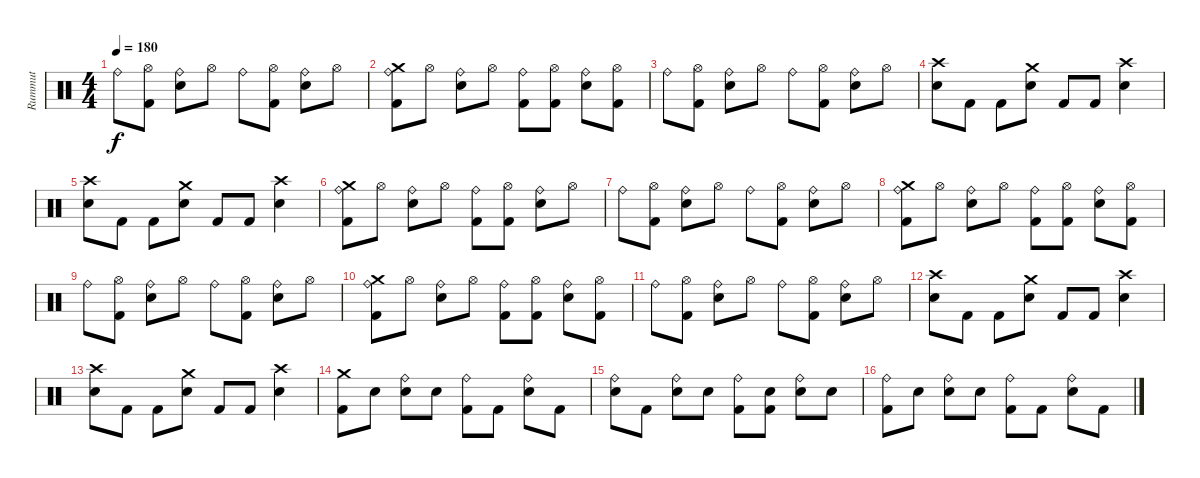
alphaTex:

\track ("Rummut" "Rummut") {instrument percussion}
\staff {score}
\articulation defaults
\ts (4 4)
\tempo 180
\clef neutral
\ks c "Ride (bell)".8{dy f}
("Hi-Hat (open)"{x} "Kick (hit) 2").8 ("Ride (bell)" "Snare (hit) 2").8 "Hi-Hat (open)"{x}.8 "Ride (bell)".8 ("Hi-Hat (open)"{x} "Kick (hit) 2").8 ("Ride (bell)" "Snare (hit) 2").8 "Hi-Hat (open)"{x}.8 |
("Ride (bell)" "Crash medium (hit)" "Kick (hit) 2").8 "Hi-Hat (open)"{x}.8 ("Ride (bell)" "Snare (hit) 2").8 "Hi-Hat (open)"{x}.8 ("Ride (bell)" "Kick (hit) 2").8 ("Hi-Hat (open)"{x} "Kick (hit) 2").8 ("Ride (bell)" "Snare (hit) 2").8 ("Hi-Hat (open)"{x} "Kick (hit) 2").8 |
"Ride (bell)".8 ("Hi-Hat (open)"{x} "Kick (hit) 2").8 ("Ride (bell)" "Snare (hit) 2").8 "Hi-Hat (open)"{x}.8 "Ride (bell)".8 ("Hi-Hat (open)"{x} "Kick (hit) 2").8 ("Ride (bell)" "Snare (hit) 2").8 "Hi-Hat (open)"{x}.8 |
("Crash high (hit)" "Snare (hit) 2").8 "Kick (hit) 2".8 "Kick (hit) 2".8 ("Crash medium (hit)" "Snare (hit) 2").8 "Kick (hit) 2".8 "Kick (hit) 2".8 ("Crash high (hit)" "Snare (hit) 2").4 |
("Crash high (hit)" "Snare (hit) 2").8 "Kick (hit) 2".8 "Kick (hit) 2".8 ("Crash medium (hit)" "Snare (hit) 2").8 "Kick (hit) 2".8 "Kick (hit) 2".8 ("Crash high (hit)" "Snare (hit) 2").4 |
("Ride (bell)" "Crash medium (hit)" "Kick (hit) 2").8 "Hi-Hat (open)"{x}.8 ("Ride (bell)" "Snare (hit) 2").8 "Hi-Hat (open)"{x}.8 ("Ride (bell)" "Kick (hit) 2").8 ("Hi-Hat (open)"{x} "Kick (hit) 2").8 ("Ride (bell)" "Snare (hit) 2").8 "Hi-Hat (open)"{x}.8 |
"Ride (bell)".8 ("Hi-Hat (open)"{x} "Kick (hit) 2").8 ("Ride (bell)" "Snare (hit) 2").8 "Hi-Hat (open)"{x}.8 "Ride (bell)".8 ("Hi-Hat (open)"{x} "Kick (hit) 2").8 ("Ride (bell)" "Snare (hit) 2").8 "Hi-Hat (open)"{x}.8 |
("Ride (bell)" "Crash medium (hit)" "Kick (hit) 2").8 "Hi-Hat (open)"{x}.8 ("Ride (bell)" "Snare (hit) 2").8 "Hi-Hat (open)"{x}.8 ("Ride (bell)" "Kick (hit) 2").8 ("Hi-Hat (open)"{x} "Kick (hit) 2").8 ("Ride (bell)" "Snare (hit) 2").8 ("Hi-Hat (open)"{x} "Kick (hit) 2").8 |
"Ride (bell)".8 ("Hi-Hat (open)"{x} "Kick (hit) 2").8 ("Ride (bell)" "Snare (hit) 2").8 "Hi-Hat (open)"{x}.8 "Ride (bell)".8 ("Hi-Hat (open)"{x} "Kick (hit) 2").8 ("Ride (bell)" "Snare (hit) 2").8 "Hi-Hat (open)"{x}.8 |
("Ride (bell)" "Crash medium (hit)" "Kick (hit) 2").8 "Hi-Hat (open)"{x}.8 ("Ride (bell)" "Snare (hit) 2").8 "Hi-Hat (open)"{x}.8 ("Ride (bell)" "Kick (hit) 2").8 ("Hi-Hat (open)"{x} "Kick (hit) 2").8 ("Ride (bell)" "Snare (hit) 2").8 ("Hi-Hat (open)"{x} "Kick (hit) 2").8 |
"Ride (bell)".8 ("Hi-Hat (open)"{x} "Kick (hit) 2").8 ("Ride (bell)" "Snare (hit) 2").8 "Hi-Hat (open)"{x}.8 "Ride (bell)".8 ("Hi-Hat (open)"{x} "Kick (hit) 2").8 ("Ride (bell)" "Snare (hit) 2").8 "Hi-Hat (open)"{x}.8 |
("Crash high (hit)" "Snare (hit) 2").8 "Kick (hit) 2".8 "Kick (hit) 2".8 ("Crash medium (hit)" "Snare (hit) 2").8 "Kick (hit) 2".8 "Kick (hit) 2".8 ("Crash high (hit)" "Snare (hit) 2").4 |
("Crash high (hit)" "Snare (hit) 2").8 "Kick (hit) 2".8 "Kick (hit) 2".8 ("Crash medium (hit)" "Snare (hit) 2").8 "Kick (hit) 2".8 "Kick (hit) 2".8 ("Crash high (hit)" "Snare (hit) 2").4 |
("Crash medium (hit)" "Kick (hit) 2").8 "Snare (hit) 2"{x}.8 ("Ride (bell)" "Snare (hit) 2").8 "Snare (hit)"{x}.8 ("Ride (bell)" "Kick (hit) 2").8 "Kick (hit) 2".8 ("Ride (bell)" "Snare (hit) 2").8 "Kick (hit) 2".8 |
("Ride (bell)" "Snare (hit)"{x}).8 "Kick (hit) 2".8 ("Ride (bell)" "Snare (hit) 2").8 "Snare (hit)"{x}.8 ("Ride (bell)" "Kick (hit) 2").8 ("Snare (hit)"{x} "Kick (hit) 2").8 ("Ride (bell)" "Snare (hit) 2").8 "Snare (hit)"{x}.8 |
("Ride (bell)" "Kick (hit) 2").8 "Snare (hit) 2"{x}.8 ("Ride (bell)" "Snare (hit) 2").8 "Snare (hit)"{x}.8 ("Ride (bell)" "Kick (hit) 2").8 "Kick (hit) 2".8 ("Ride (bell)" "Snare (hit) 2").8 "Kick (hit) 2".8
